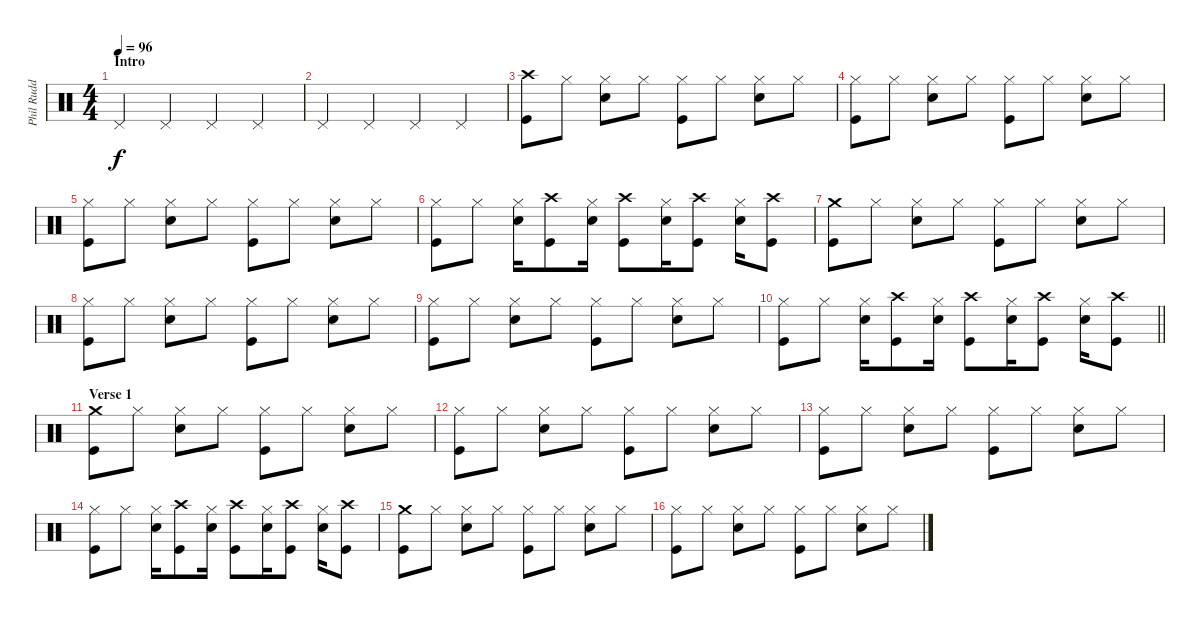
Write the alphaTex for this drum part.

\track ("Phil Rudd" "Phil Rudd") {instrument percussion}
\staff {score}
\articulation defaults
\ts (4 4)
\section ("" "Intro")
\tempo 96
\clef neutral
\ks c "Pedal Hi-Hat (hit)".4{dy f} "Pedal Hi-Hat (hit)".4 "Pedal Hi-Hat (hit)".4 "Pedal Hi-Hat (hit)".4
|
"Pedal Hi-Hat (hit)".4 "Pedal Hi-Hat (hit)".4 "Pedal Hi-Hat (hit)".4 "Pedal Hi-Hat (hit)".4 |
("Crash high (hit)" "Kick (hit)").8 "Hi-Hat (closed)".8 ("Hi-Hat (closed)" "Electric Snare (hit)").8 "Hi-Hat (closed)".8 ("Hi-Hat (closed)" "Kick (hit)").8 "Hi-Hat (closed)".8 ("Hi-Hat (closed)" "Electric Snare (hit)").8 "Hi-Hat (closed)".8 |
("Hi-Hat (closed)" "Kick (hit)").8 "Hi-Hat (closed)".8 ("Hi-Hat (closed)" "Electric Snare (hit)").8 "Hi-Hat (closed)".8 ("Hi-Hat (closed)" "Kick (hit)").8 "Hi-Hat (closed)".8 ("Hi-Hat (closed)" "Electric Snare (hit)").8 "Hi-Hat (closed)".8 |
("Hi-Hat (closed)" "Kick (hit)").8 "Hi-Hat (closed)".8 ("Hi-Hat (closed)" "Electric Snare (hit)").8 "Hi-Hat (closed)".8 ("Hi-Hat (closed)" "Kick (hit)").8 "Hi-Hat (closed)".8 ("Hi-Hat (closed)" "Electric Snare (hit)").8 "Hi-Hat (closed)".8 |
("Hi-Hat (closed)" "Kick (hit)").8 "Hi-Hat (closed)".8 ("Hi-Hat (closed)" "Electric Snare (hit)").16 ("Crash high (hit)" "Kick (hit)").8 ("Hi-Hat (closed)" "Electric Snare (hit)").16 ("Crash high (hit)" "Kick (hit)").8 ("Hi-Hat (closed)" "Electric Snare (hit)").16 ("Crash high (hit)" "Kick (hit)").8 ("Hi-Hat (closed)" "Electric Snare (hit)").16 ("Crash high (hit)" "Kick (hit)").8 |
("Crash medium (hit)" "Kick (hit)").8 "Hi-Hat (closed)".8 ("Hi-Hat (closed)" "Electric Snare (hit)").8 "Hi-Hat (closed)".8 ("Hi-Hat (closed)" "Kick (hit)").8 "Hi-Hat (closed)".8 ("Hi-Hat (closed)" "Electric Snare (hit)").8 "Hi-Hat (closed)".8 |
("Hi-Hat (closed)" "Kick (hit)").8 "Hi-Hat (closed)".8 ("Hi-Hat (closed)" "Electric Snare (hit)").8 "Hi-Hat (closed)".8 ("Hi-Hat (closed)" "Kick (hit)").8 "Hi-Hat (closed)".8 ("Hi-Hat (closed)" "Electric Snare (hit)").8 "Hi-Hat (closed)".8 |
("Hi-Hat (closed)" "Kick (hit)").8 "Hi-Hat (closed)".8 ("Hi-Hat (closed)" "Electric Snare (hit)").8 "Hi-Hat (closed)".8 ("Hi-Hat (closed)" "Kick (hit)").8 "Hi-Hat (closed)".8 ("Hi-Hat (closed)" "Electric Snare (hit)").8 "Hi-Hat (closed)".8 |
\barLineRight lightlight
("Hi-Hat (closed)" "Kick (hit)").8 "Hi-Hat (closed)".8 ("Hi-Hat (closed)" "Electric Snare (hit)").16 ("Crash high (hit)" "Kick (hit)").8 ("Hi-Hat (closed)" "Electric Snare (hit)").16 ("Crash high (hit)" "Kick (hit)").8 ("Hi-Hat (closed)" "Electric Snare (hit)").16 ("Crash high (hit)" "Kick (hit)").8 ("Hi-Hat (closed)" "Electric Snare (hit)").16 ("Crash high (hit)" "Kick (hit)").8 |
\section ("" "Verse 1")
("Crash medium (hit)" "Kick (hit)").8 "Hi-Hat (closed)".8 ("Hi-Hat (closed)" "Electric Snare (hit)").8 "Hi-Hat (closed)".8 ("Hi-Hat (closed)" "Kick (hit)").8 "Hi-Hat (closed)".8 ("Hi-Hat (closed)" "Electric Snare (hit)").8 "Hi-Hat (closed)".8 |
("Hi-Hat (closed)" "Kick (hit)").8 "Hi-Hat (closed)".8 ("Hi-Hat (closed)" "Electric Snare (hit)").8 "Hi-Hat (closed)".8 ("Hi-Hat (closed)" "Kick (hit)").8 "Hi-Hat (closed)".8 ("Hi-Hat (closed)" "Electric Snare (hit)").8 "Hi-Hat (closed)".8 |
("Hi-Hat (closed)" "Kick (hit)").8 "Hi-Hat (closed)".8 ("Hi-Hat (closed)" "Electric Snare (hit)").8 "Hi-Hat (closed)".8 ("Hi-Hat (closed)" "Kick (hit)").8 "Hi-Hat (closed)".8 ("Hi-Hat (closed)" "Electric Snare (hit)").8 "Hi-Hat (closed)".8 |
("Hi-Hat (closed)" "Kick (hit)").8 "Hi-Hat (closed)".8 ("Hi-Hat (closed)" "Electric Snare (hit)").16 ("Crash high (hit)" "Kick (hit)").8 ("Hi-Hat (closed)" "Electric Snare (hit)").16 ("Crash high (hit)" "Kick (hit)").8 ("Hi-Hat (closed)" "Electric Snare (hit)").16 ("Crash high (hit)" "Kick (hit)").8 ("Hi-Hat (closed)" "Electric Snare (hit)").16 ("Crash high (hit)" "Kick (hit)").8 |
("Crash medium (hit)" "Kick (hit)").8 "Hi-Hat (closed)".8 ("Hi-Hat (closed)" "Electric Snare (hit)").8 "Hi-Hat (closed)".8 ("Hi-Hat (closed)" "Kick (hit)").8 "Hi-Hat (closed)".8 ("Hi-Hat (closed)" "Electric Snare (hit)").8 "Hi-Hat (closed)".8 |
("Hi-Hat (closed)" "Kick (hit)").8 "Hi-Hat (closed)".8 ("Hi-Hat (closed)" "Electric Snare (hit)").8 "Hi-Hat (closed)".8 ("Hi-Hat (closed)" "Kick (hit)").8 "Hi-Hat (closed)".8 ("Hi-Hat (closed)" "Electric Snare (hit)").8 "Hi-Hat (closed)".8
